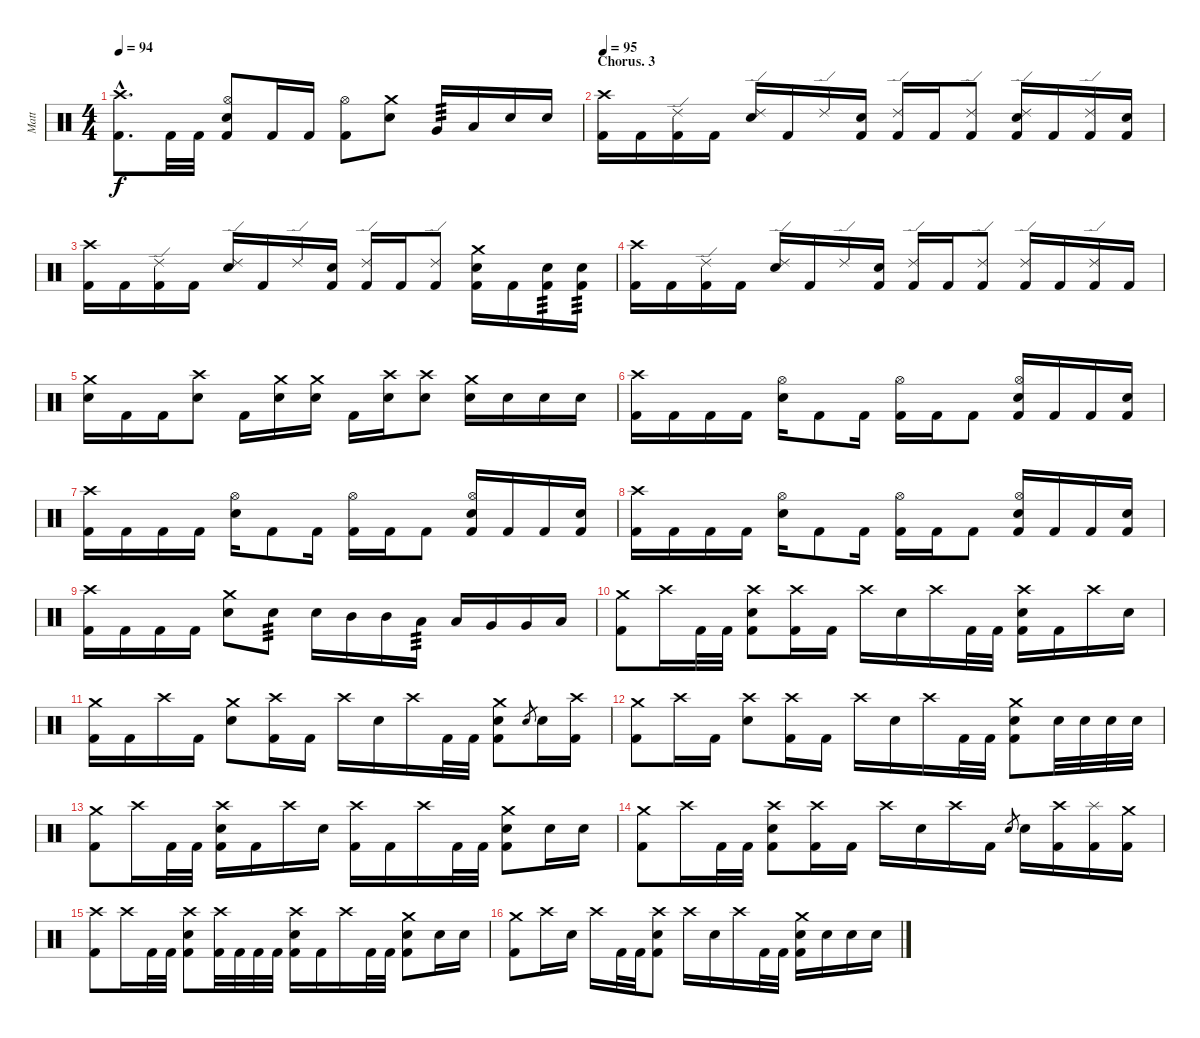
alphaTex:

\track ("Matt" "Matt") {instrument percussion}
\staff {score}
\articulation defaults
\ts (4 4)
\tempo 94
\clef neutral
\ks c
("Crash high (hit)"{hac} "Kick (hit) 2"{hac}).8{d dy f} "Kick (hit) 2".32 "Kick (hit) 2".32 ("Hi-Hat (open)" "Electric Snare (hit)" "Kick (hit) 2").8 "Kick (hit) 2".16 "Kick (hit) 2".16 ("Hi-Hat (open)" "Kick (hit) 2").8 ("Crash medium (hit)" "Electric Snare (hit)").8 "Very Low Tom (hit)".16{tp 3} "Low Floor Tom (hit)".16 "Electric Snare (hit)".16 "Electric Snare (hit)".16 |
\section ("" "Chorus. 3")
\tempo 95
("Crash high (hit)" "Kick (hit) 2").16 "Kick (hit) 2".16 ("Ride (edge) 2" "Kick (hit) 2").16 "Kick (hit) 2".16 ("Ride (edge) 2" "Electric Snare (hit)").16 "Kick (hit) 2".16 "Ride (edge) 2".16 ("Electric Snare (hit)" "Kick (hit) 2").16 ("Ride (edge) 2" "Kick (hit) 2").16 "Kick (hit) 2".16 ("Ride (edge) 2" "Kick (hit) 2").8 ("Ride (edge) 2" "Electric Snare (hit)" "Kick (hit) 2").16 "Kick (hit) 2".16 ("Ride (edge) 2" "Kick (hit) 2").16 ("Electric Snare (hit)" "Kick (hit) 2").16 |
("Crash high (hit)" "Kick (hit) 2").16 "Kick (hit) 2".16 ("Ride (edge) 2" "Kick (hit) 2").16 "Kick (hit) 2".16 ("Ride (edge) 2" "Electric Snare (hit)").16 "Kick (hit) 2".16 "Ride (edge) 2".16 ("Electric Snare (hit)" "Kick (hit) 2").16 ("Ride (edge) 2" "Kick (hit) 2").16 "Kick (hit) 2".16 ("Ride (edge) 2" "Kick (hit) 2").8 ("Crash medium (hit)" "Electric Snare (hit)" "Kick (hit) 2").16 "Kick (hit) 2".16 ("Electric Snare (hit)" "Kick (hit) 2").16{tp 3} ("Electric Snare (hit)" "Kick (hit) 2").16{tp 3} |
("Crash high (hit)" "Kick (hit) 2").16 "Kick (hit) 2".16 ("Ride (edge) 2" "Kick (hit) 2").16 "Kick (hit) 2".16 ("Ride (edge) 2" "Electric Snare (hit)").16 "Kick (hit) 2".16 "Ride (edge) 2".16 ("Electric Snare (hit)" "Kick (hit) 2").16 ("Ride (edge) 2" "Kick (hit) 2").16 "Kick (hit) 2".16 ("Ride (edge) 2" "Kick (hit) 2").8 ("Ride (edge) 2" "Kick (hit) 2").16 "Kick (hit) 2".16 ("Ride (edge) 2" "Kick (hit) 2").16 "Kick (hit) 2".16 |
("Crash medium (hit)" "Electric Snare (hit)").16 "Kick (hit) 2".16 "Kick (hit) 2".16 ("Crash high (hit)" "Electric Snare (hit)").8 "Kick (hit) 2".16 ("Crash medium (hit)" "Electric Snare (hit)").16 ("Crash medium (hit)" "Electric Snare (hit)").16 "Kick (hit) 2".16 ("Crash high (hit)" "Electric Snare (hit)").16 ("Crash high (hit)" "Electric Snare (hit)").8 ("Crash medium (hit)" "Electric Snare (hit)").16 "Electric Snare (hit)".16 "Electric Snare (hit)".16 "Electric Snare (hit)".16 |
("Crash high (hit)" "Kick (hit) 2").16 "Kick (hit) 2".16 "Kick (hit) 2".16 "Kick (hit) 2".16 ("Hi-Hat (open)" "Electric Snare (hit)").16 "Kick (hit) 2".8 "Kick (hit) 2".16 ("Hi-Hat (open)" "Kick (hit) 2").16 "Kick (hit) 2".16 "Kick (hit) 2".8 ("Hi-Hat (open)" "Electric Snare (hit)" "Kick (hit) 2").16 "Kick (hit) 2".16 "Kick (hit) 2".16 ("Electric Snare (hit)" "Kick (hit) 2").16 |
("Crash high (hit)" "Kick (hit) 2").16 "Kick (hit) 2".16 "Kick (hit) 2".16 "Kick (hit) 2".16 ("Hi-Hat (open)" "Electric Snare (hit)").16 "Kick (hit) 2".8 "Kick (hit) 2".16 ("Hi-Hat (open)" "Kick (hit) 2").16 "Kick (hit) 2".16 "Kick (hit) 2".8 ("Hi-Hat (open)" "Electric Snare (hit)" "Kick (hit) 2").16 "Kick (hit) 2".16 "Kick (hit) 2".16 ("Electric Snare (hit)" "Kick (hit) 2").16 |
("Crash high (hit)" "Kick (hit) 2").16 "Kick (hit) 2".16 "Kick (hit) 2".16 "Kick (hit) 2".16 ("Hi-Hat (open)" "Electric Snare (hit)").16 "Kick (hit) 2".8 "Kick (hit) 2".16 ("Hi-Hat (open)" "Kick (hit) 2").16 "Kick (hit) 2".16 "Kick (hit) 2".8 ("Hi-Hat (open)" "Electric Snare (hit)" "Kick (hit) 2").16 "Kick (hit) 2".16 "Kick (hit) 2".16 ("Electric Snare (hit)" "Kick (hit) 2").16 |
("Crash high (hit)" "Kick (hit) 2").16 "Kick (hit) 2".16 "Kick (hit) 2".16 "Kick (hit) 2".16 ("Crash medium (hit)" "Electric Snare (hit)").8 "Electric Snare (hit)".8{tp 3} "Electric Snare (hit)".16 "Mid Tom (hit)".16 "Mid Tom (hit)".16 "Low Tom (hit)".16{tp 3} "Low Tom (hit)".16 "Very Low Tom (hit)".16 "Very Low Tom (hit)".16 "Low Floor Tom (hit)".16 |
("Crash medium (hit)" "Kick (hit) 2").8 "Crash high (hit)".16 "Kick (hit) 2".32 "Kick (hit) 2".32 ("Crash high (hit)" "Electric Snare (hit)" "Kick (hit) 2").8 ("Crash high (hit)" "Kick (hit) 2").16 "Kick (hit) 2".16 "Crash high (hit)".16 "Electric Snare (hit)".16 "Crash high (hit)".16 "Kick (hit) 2".32 "Kick (hit) 2".32 ("Crash high (hit)" "Electric Snare (hit)" "Kick (hit) 2").16 "Kick (hit) 2".16 "Crash high (hit)".16 "Electric Snare (hit)".16 |
("Crash medium (hit)" "Kick (hit) 2").16 "Kick (hit) 2".16 "Crash high (hit)".16 "Kick (hit) 2".16 ("Crash medium (hit)" "Electric Snare (hit)").8 ("Crash high (hit)" "Kick (hit) 2").16 "Kick (hit) 2".16 "Crash high (hit)".16 "Electric Snare (hit)".16 "Crash high (hit)".16 "Kick (hit) 2".32 "Kick (hit) 2".32 ("Crash medium (hit)" "Electric Snare (hit)" "Kick (hit) 2").8 "Electric Snare (hit)".8{gr} "Electric Snare (hit)".16 ("Crash high (hit)" "Kick (hit) 2").16 |
("Crash medium (hit)" "Kick (hit) 2").8 "Crash high (hit)".16 "Kick (hit) 2".16 ("Crash high (hit)" "Electric Snare (hit)").8 ("Crash high (hit)" "Kick (hit) 2").16 "Kick (hit) 2".16 "Crash high (hit)".16 "Electric Snare (hit)".16 "Crash high (hit)".16 "Kick (hit) 2".32 "Kick (hit) 2".32 ("Crash medium (hit)" "Electric Snare (hit)" "Kick (hit) 2").8 "Electric Snare (hit)".32 "Electric Snare (hit)".32 "Electric Snare (hit)".32 "Electric Snare (hit)".32 |
("Crash medium (hit)" "Kick (hit) 2").8 "Crash high (hit)".16 "Kick (hit) 2".32 "Kick (hit) 2".32 ("Crash high (hit)" "Electric Snare (hit)" "Kick (hit) 2").16 "Kick (hit) 2".16 "Crash high (hit)".16 "Electric Snare (hit)".16 ("Crash high (hit)" "Kick (hit) 2").16 "Kick (hit) 2".16 "Crash high (hit)".16 "Kick (hit) 2".32 "Kick (hit) 2".32 ("Crash medium (hit)" "Electric Snare (hit)" "Kick (hit) 2").8 "Electric Snare (hit)".16 "Electric Snare (hit)".16 |
("Crash medium (hit)" "Kick (hit) 2").8 "Crash high (hit)".16 "Kick (hit) 2".32 "Kick (hit) 2".32 ("Crash high (hit)" "Electric Snare (hit)" "Kick (hit) 2").8 ("Crash high (hit)" "Kick (hit) 2").16 "Kick (hit) 2".16 "Crash high (hit)".16 "Electric Snare (hit)".16 "Crash high (hit)".16 "Kick (hit) 2".16 "Electric Snare (hit)".8{gr} "Electric Snare (hit)".16 ("Crash high (hit)" "Kick (hit) 2").16 ("Splash (hit)" "Kick (hit) 2").16 ("Crash medium (hit)" "Kick (hit) 2").16 |
("Crash high (hit)" "Kick (hit) 2").8 "Crash high (hit)".16 "Kick (hit) 2".32 "Kick (hit) 2".32 ("Crash high (hit)" "Electric Snare (hit)" "Kick (hit) 2").8 ("Crash high (hit)" "Kick (hit) 2").32 "Kick (hit) 2".32 "Kick (hit) 2".32 "Kick (hit) 2".32 ("Crash high (hit)" "Electric Snare (hit)" "Kick (hit) 2").16 "Kick (hit) 2".16 "Crash high (hit)".16 "Kick (hit) 2".32 "Kick (hit) 2".32 ("Crash medium (hit)" "Electric Snare (hit)" "Kick (hit) 2").8 "Electric Snare (hit)".16 "Electric Snare (hit)".16 |
("Crash medium (hit)" "Kick (hit) 2").8 "Crash high (hit)".16 "Electric Snare (hit)".16 "Crash high (hit)".16 "Kick (hit) 2".32 "Kick (hit) 2".32 ("Crash high (hit)" "Electric Snare (hit)" "Kick (hit) 2").8 "Crash high (hit)".16 "Electric Snare (hit)".16 "Crash high (hit)".16 "Kick (hit) 2".32 "Kick (hit) 2".32 ("Crash medium (hit)" "Electric Snare (hit)" "Kick (hit) 2").16 "Electric Snare (hit)".16 "Electric Snare (hit)".16 "Electric Snare (hit)".16
